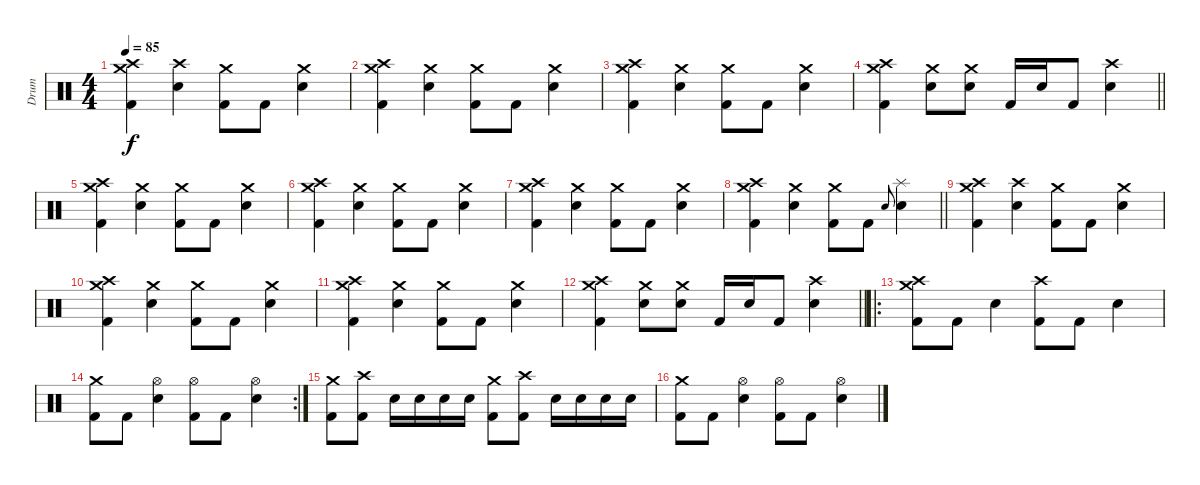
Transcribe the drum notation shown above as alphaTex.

\track ("Drum" "Drum") {instrument percussion}
\staff {score}
\articulation defaults
\ts (4 4)
\tempo 85
\clef neutral
\ks c
("Crash high (hit)" "Crash medium (hit)" "Kick (hit) 2").4{dy f} ("Crash high (hit)" "Electric Snare (hit)").4 ("Crash medium (hit)" "Kick (hit) 2").8 "Kick (hit) 2".8 ("Crash medium (hit)" "Electric Snare (hit)").4 |
("Crash high (hit)" "Crash medium (hit)" "Kick (hit) 2").4 ("Crash medium (hit)" "Electric Snare (hit)").4 ("Crash medium (hit)" "Kick (hit) 2").8 "Kick (hit) 2".8 ("Crash medium (hit)" "Electric Snare (hit)").4 |
("Crash high (hit)" "Crash medium (hit)" "Kick (hit) 2").4 ("Crash medium (hit)" "Electric Snare (hit)").4 ("Crash medium (hit)" "Kick (hit) 2").8 "Kick (hit) 2".8 ("Crash medium (hit)" "Electric Snare (hit)").4 |
\barLineRight lightlight
("Crash high (hit)" "Crash medium (hit)" "Kick (hit) 2").4 ("Crash medium (hit)" "Electric Snare (hit)").8 ("Crash medium (hit)" "Electric Snare (hit)").8 "Kick (hit) 2".16 "Electric Snare (hit)".16 "Kick (hit) 2".8 ("Crash high (hit)" "Electric Snare (hit)").4 |
("Crash high (hit)" "Crash medium (hit)" "Kick (hit) 2").4 ("Crash medium (hit)" "Electric Snare (hit)").4 ("Crash medium (hit)" "Kick (hit) 2").8 "Kick (hit) 2".8 ("Crash medium (hit)" "Electric Snare (hit)").4 |
("Crash high (hit)" "Crash medium (hit)" "Kick (hit) 2").4 ("Crash medium (hit)" "Electric Snare (hit)").4 ("Crash medium (hit)" "Kick (hit) 2").8 "Kick (hit) 2".8 ("Crash medium (hit)" "Electric Snare (hit)").4 |
("Crash high (hit)" "Crash medium (hit)" "Kick (hit) 2").4 ("Crash medium (hit)" "Electric Snare (hit)").4 ("Crash medium (hit)" "Kick (hit) 2").8 "Kick (hit) 2".8 ("Crash medium (hit)" "Electric Snare (hit)").4 |
\barLineRight lightlight
("Crash high (hit)" "Crash medium (hit)" "Kick (hit) 2").4 ("Crash medium (hit)" "Electric Snare (hit)").4 ("Crash medium (hit)" "Kick (hit) 2").8 "Kick (hit) 2".8 "Electric Snare (hit)".8{gr onbeat} ("Splash (hit)" "Electric Snare (hit)").4 |
("Crash high (hit)" "Crash medium (hit)" "Kick (hit) 2").4 ("Crash high (hit)" "Electric Snare (hit)").4 ("Crash medium (hit)" "Kick (hit) 2").8 "Kick (hit) 2".8 ("Crash medium (hit)" "Electric Snare (hit)").4 |
("Crash high (hit)" "Crash medium (hit)" "Kick (hit) 2").4 ("Crash medium (hit)" "Electric Snare (hit)").4 ("Crash medium (hit)" "Kick (hit) 2").8 "Kick (hit) 2".8 ("Crash medium (hit)" "Electric Snare (hit)").4 |
("Crash high (hit)" "Crash medium (hit)" "Kick (hit) 2").4 ("Crash medium (hit)" "Electric Snare (hit)").4 ("Crash medium (hit)" "Kick (hit) 2").8 "Kick (hit) 2".8 ("Crash medium (hit)" "Electric Snare (hit)").4 |
\barLineRight lightlight
("Crash high (hit)" "Crash medium (hit)" "Kick (hit) 2").4 ("Crash medium (hit)" "Electric Snare (hit)").8 ("Crash medium (hit)" "Electric Snare (hit)").8 "Kick (hit) 2".16 "Electric Snare (hit)".16 "Kick (hit) 2".8 ("Crash high (hit)" "Electric Snare (hit)").4 |
\ro
\section ("" "")
("Crash medium (hit)" "Crash high (hit)" "Kick (hit) 2").8 "Kick (hit) 2".8 "Electric Snare (hit)".4 ("Crash high (hit)" "Kick (hit) 2").8 "Kick (hit) 2".8 "Electric Snare (hit)".4 |
\rc 2
("Crash medium (hit)" "Kick (hit) 2").8 "Kick (hit) 2".8 ("Hi-Hat (open)" "Electric Snare (hit)").4 ("Hi-Hat (open)" "Kick (hit) 2").8 "Kick (hit) 2".8 ("Hi-Hat (open)" "Electric Snare (hit)").4 |
("Crash medium (hit)" "Kick (hit) 2").8 ("Crash high (hit)" "Kick (hit) 2").8 "Electric Snare (hit)".16 "Electric Snare (hit)".16 "Electric Snare (hit)".16 "Electric Snare (hit)".16 ("Crash medium (hit)" "Kick (hit) 2").8 ("Crash high (hit)" "Kick (hit) 2").8 "Electric Snare (hit)".16 "Electric Snare (hit)".16 "Electric Snare (hit)".16 "Electric Snare (hit)".16 |
("Crash medium (hit)" "Kick (hit) 2").8 "Kick (hit) 2".8 ("Hi-Hat (open)" "Electric Snare (hit)").4 ("Hi-Hat (open)" "Kick (hit) 2").8 "Kick (hit) 2".8 ("Hi-Hat (open)" "Electric Snare (hit)").4
